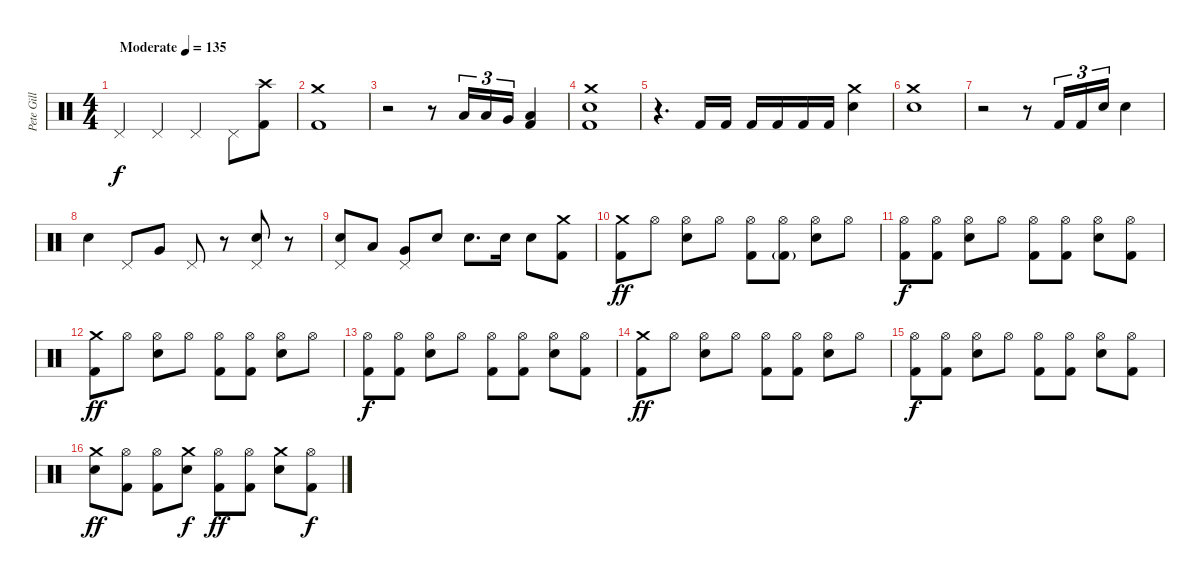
\track ("Pete Gill" "Pete Gill") {instrument percussion}
\staff {score}
\articulation defaults
\ts (4 4)
\tempo (135 "Moderate")
\clef neutral
\ks c "Pedal Hi-Hat (hit)".4{dy f} "Pedal Hi-Hat (hit)".4 "Pedal Hi-Hat (hit)".4 "Pedal Hi-Hat (hit)".8
("Kick (hit) 2" "Crash high (hit)").8 |
("Crash medium (hit)" "Kick (hit) 2").1 |
r.2 r.8 "Low Tom (hit)".16{tu (3 2)} "Low Tom (hit)".16{tu (3 2)} "Very Low Tom (hit)".16{tu (3 2)} ("Low Floor Tom (hit)" "Kick (hit) 2").4 |
("Crash medium (hit)" "Kick (hit) 2" "Snare (hit) 2").1 |
r.4{d} "Kick (hit) 2".16 "Kick (hit) 2".16 "Kick (hit) 2".16 "Kick (hit) 2".16 "Kick (hit) 2".16 "Kick (hit) 2".16 ("Snare (hit) 2" "Crash medium (hit)").4 |
("Snare (hit) 2" "Crash medium (hit)").1 |
r.2 r.8 "Kick (hit) 2".16{tu (3 2)} "Kick (hit) 2".16{tu (3 2)} "Snare (hit) 2".16{tu (3 2)} "Snare (hit) 2".4 |
"Snare (hit) 2".4 "Pedal Hi-Hat (hit)".8 "Very Low Tom (hit)".8 "Pedal Hi-Hat (hit)".8 r.8 ("Snare (hit) 2" "Pedal Hi-Hat (hit)").8 r.8 |
("Snare (hit) 2" "Pedal Hi-Hat (hit)").8 "Low Tom (hit)".8 ("Very Low Tom (hit)" "Pedal Hi-Hat (hit)").8 "Snare (hit) 2".8 "Snare (hit) 2".8{d} "Snare (hit) 2".16 "Snare (hit) 2".8 ("Kick (hit) 2" "Crash medium (hit)").8 |
("Crash medium (hit)" "Kick (hit) 2").8{dy ff} "Hi-Hat (open)".8 ("Hi-Hat (open)" "Snare (hit) 2").8 "Hi-Hat (open)".8 ("Hi-Hat (open)" "Kick (hit) 2").8 ("Hi-Hat (open)" "Kick (hit) 2"{g}).8 ("Hi-Hat (open)" "Snare (hit) 2").8 "Hi-Hat (open)".8 |
("Hi-Hat (open)" "Kick (hit) 2").8{dy f} ("Hi-Hat (open)" "Kick (hit) 2").8 ("Hi-Hat (open)" "Snare (hit) 2").8 "Hi-Hat (open)".8 ("Hi-Hat (open)" "Kick (hit) 2").8 ("Hi-Hat (open)" "Kick (hit) 2").8 ("Hi-Hat (open)" "Snare (hit) 2").8 ("Hi-Hat (open)" "Kick (hit) 2").8 |
("Crash medium (hit)" "Kick (hit) 2").8{dy ff} "Hi-Hat (open)".8 ("Hi-Hat (open)" "Snare (hit) 2").8 "Hi-Hat (open)".8 ("Hi-Hat (open)" "Kick (hit) 2").8 ("Hi-Hat (open)" "Kick (hit) 2").8 ("Hi-Hat (open)" "Snare (hit) 2").8 "Hi-Hat (open)".8 |
("Hi-Hat (open)" "Kick (hit) 2").8{dy f} ("Hi-Hat (open)" "Kick (hit) 2").8 ("Hi-Hat (open)" "Snare (hit) 2").8 "Hi-Hat (open)".8 ("Hi-Hat (open)" "Kick (hit) 2").8 ("Hi-Hat (open)" "Kick (hit) 2").8 ("Hi-Hat (open)" "Snare (hit) 2").8 ("Hi-Hat (open)" "Kick (hit) 2").8 |
("Crash medium (hit)" "Kick (hit) 2").8{dy ff} "Hi-Hat (open)".8 ("Hi-Hat (open)" "Snare (hit) 2").8 "Hi-Hat (open)".8 ("Hi-Hat (open)" "Kick (hit) 2").8 ("Hi-Hat (open)" "Kick (hit) 2").8 ("Hi-Hat (open)" "Snare (hit) 2").8 "Hi-Hat (open)".8 |
("Hi-Hat (open)" "Kick (hit) 2").8{dy f} ("Hi-Hat (open)" "Kick (hit) 2").8 ("Hi-Hat (open)" "Snare (hit) 2").8 "Hi-Hat (open)".8 ("Hi-Hat (open)" "Kick (hit) 2").8 ("Hi-Hat (open)" "Kick (hit) 2").8 ("Hi-Hat (open)" "Snare (hit) 2").8 ("Hi-Hat (open)" "Kick (hit) 2").8 |
("Crash medium (hit)" "Snare (hit) 2").8{dy ff} ("Hi-Hat (open)" "Kick (hit) 2").8 ("Hi-Hat (open)" "Kick (hit) 2").8 ("Crash medium (hit)" "Snare (hit) 2").8{dy f} ("Hi-Hat (open)" "Kick (hit) 2").8{dy ff} ("Hi-Hat (open)" "Kick (hit) 2").8 ("Crash medium (hit)" "Snare (hit) 2").8 ("Hi-Hat (open)" "Kick (hit) 2").8{dy f}
